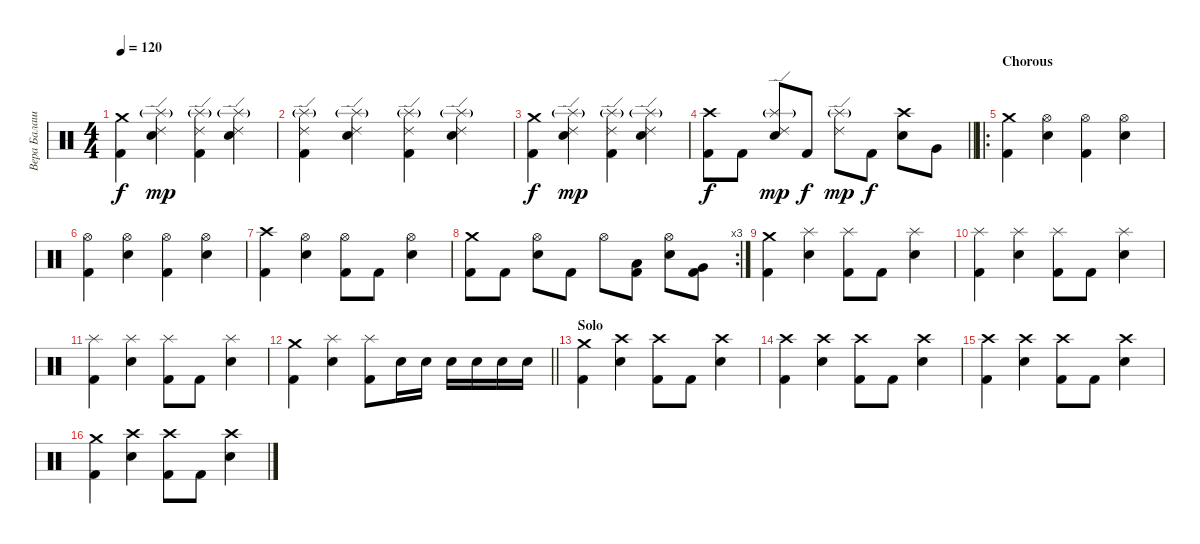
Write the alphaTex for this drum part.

\track ("Вера Балашевич" "Вера Балаш") {instrument percussion}
\staff {score}
\articulation defaults
\ts (4 4)
\tempo 120
\clef neutral
\ks c
("Crash medium (hit)" "Kick (hit) 2").4{dy f} ("Ride (edge) 2" "Splash (hit)"{g} "Electric Snare (hit)").4{dy mp} ("Ride (edge) 2" "Splash (hit)"{g} "Kick (hit) 2").4 ("Ride (edge) 2" "Splash (hit)"{g} "Electric Snare (hit)").4 |
("Ride (edge) 2" "Splash (hit)"{g} "Kick (hit) 2").4 ("Ride (edge) 2" "Splash (hit)"{g} "Electric Snare (hit)").4 ("Ride (edge) 2" "Splash (hit)"{g} "Kick (hit) 2").4 ("Ride (edge) 2" "Splash (hit)"{g} "Electric Snare (hit)").4 |
("Crash medium (hit)" "Kick (hit) 2").4{dy f} ("Ride (edge) 2" "Splash (hit)"{g} "Electric Snare (hit)").4{dy mp} ("Ride (edge) 2" "Splash (hit)"{g} "Kick (hit) 2").4 ("Ride (edge) 2" "Splash (hit)"{g} "Electric Snare (hit)").4 |
\barLineRight lightlight
("Crash high (hit)" "Kick (hit) 2").8{dy f} "Kick (hit) 2".8 ("Ride (edge) 2" "Splash (hit)"{g} "Electric Snare (hit)").8{dy mp} "Kick (hit) 2".8{dy f} ("Ride (edge) 2" "Splash (hit)"{g}).8{dy mp} "Kick (hit) 2".8{dy f} ("Crash high (hit)" "Electric Snare (hit)").8 "Very Low Tom (hit)".8 |
\ro
\section ("" "Chorous")
("Crash medium (hit)" "Kick (hit) 2").4 ("Hi-Hat (open)" "Electric Snare (hit)").4 ("Hi-Hat (open)" "Kick (hit) 2").4 ("Hi-Hat (open)" "Electric Snare (hit)").4 |
("Hi-Hat (open)" "Kick (hit) 2").4 ("Hi-Hat (open)" "Electric Snare (hit)").4 ("Hi-Hat (open)" "Kick (hit) 2").4 ("Hi-Hat (open)" "Electric Snare (hit)").4 |
("Crash high (hit)" "Kick (hit) 2").4 ("Hi-Hat (open)" "Electric Snare (hit)").4 ("Hi-Hat (open)" "Kick (hit) 2").8 "Kick (hit) 2".8 ("Hi-Hat (open)" "Electric Snare (hit)").4 |
\rc 3
("Crash medium (hit)" "Kick (hit) 2").8 "Kick (hit) 2".8 ("Hi-Hat (open)" "Electric Snare (hit)").8 "Kick (hit) 2".8 "Hi-Hat (open)".8 ("Low Tom (hit)" "Kick (hit) 2").8 ("Hi-Hat (open)" "Electric Snare (hit)").8 ("Very Low Tom (hit)" "Kick (hit) 2").8 |
("Crash medium (hit)" "Kick (hit) 2").4 ("Splash (hit)" "Electric Snare (hit)").4 ("Splash (hit)" "Kick (hit) 2").8 "Kick (hit) 2".8 ("Splash (hit)" "Electric Snare (hit)").4 |
("Splash (hit)" "Kick (hit) 2").4 ("Splash (hit)" "Electric Snare (hit)").4 ("Splash (hit)" "Kick (hit) 2").8 "Kick (hit) 2".8 ("Splash (hit)" "Electric Snare (hit)").4 |
("Splash (hit)" "Kick (hit) 2").4 ("Splash (hit)" "Electric Snare (hit)").4 ("Splash (hit)" "Kick (hit) 2").8 "Kick (hit) 2".8 ("Splash (hit)" "Electric Snare (hit)").4 |
\barLineRight lightlight
("Crash medium (hit)" "Kick (hit) 2").4 ("Splash (hit)" "Electric Snare (hit)").4 ("Splash (hit)" "Kick (hit) 2").8 "Electric Snare (hit)".16 "Electric Snare (hit)".16 "Electric Snare (hit)".16 "Electric Snare (hit)".16 "Electric Snare (hit)".16 "Electric Snare (hit)".16 |
\section ("" "Solo")
("Crash medium (hit)" "Kick (hit) 2").4 ("Crash high (hit)" "Electric Snare (hit)").4 ("Crash high (hit)" "Kick (hit) 2").8 "Kick (hit) 2".8 ("Crash high (hit)" "Electric Snare (hit)").4 |
("Crash high (hit)" "Kick (hit) 2").4 ("Crash high (hit)" "Electric Snare (hit)").4 ("Crash high (hit)" "Kick (hit) 2").8 "Kick (hit) 2".8 ("Crash high (hit)" "Electric Snare (hit)").4 |
("Crash high (hit)" "Kick (hit) 2").4 ("Crash high (hit)" "Electric Snare (hit)").4 ("Crash high (hit)" "Kick (hit) 2").8 "Kick (hit) 2".8 ("Crash high (hit)" "Electric Snare (hit)").4 |
("Crash medium (hit)" "Kick (hit) 2").4 ("Crash high (hit)" "Electric Snare (hit)").4 ("Crash high (hit)" "Kick (hit) 2").8 "Kick (hit) 2".8 ("Crash high (hit)" "Electric Snare (hit)").4
